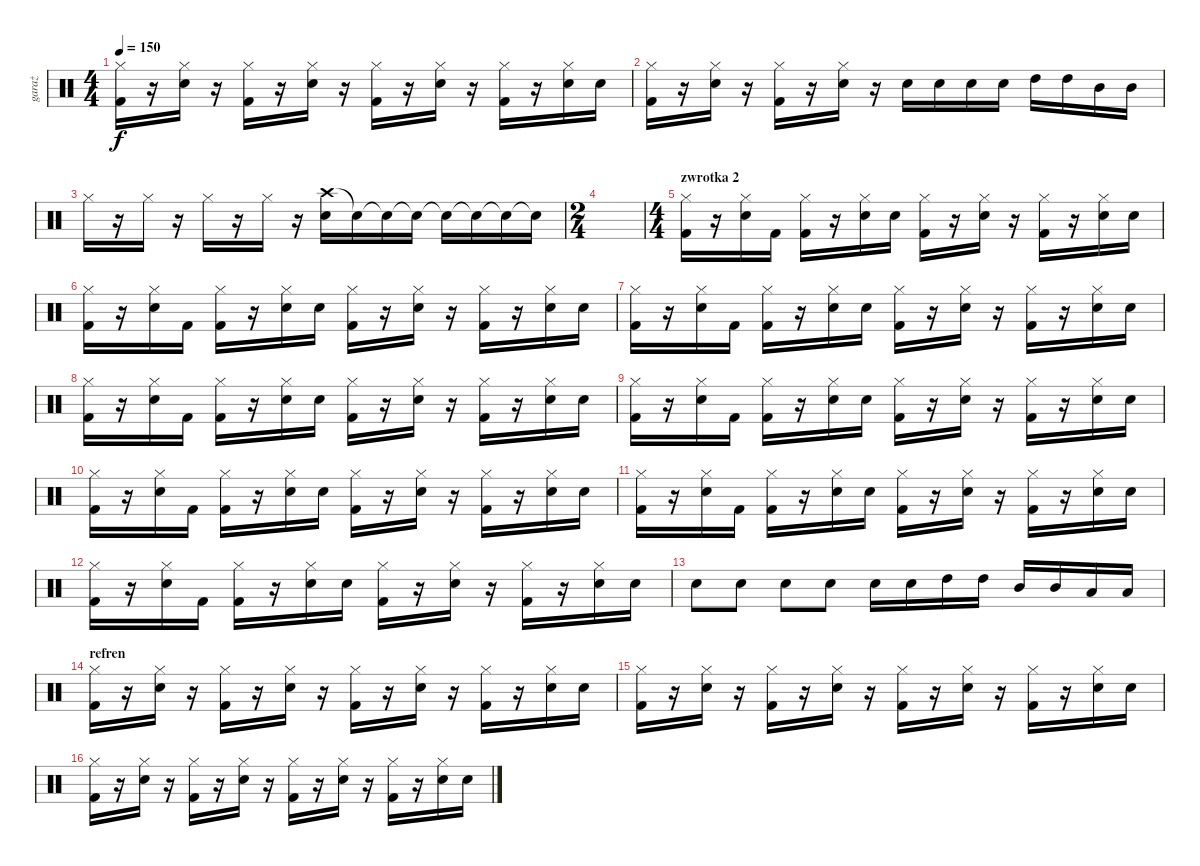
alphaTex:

\track ("garaż" "garaż") {instrument percussion}
\staff {score}
\articulation defaults
\ts (4 4)
\tempo 150
\clef neutral
\ks c
("Kick (hit) 2" "Hi-Hat (closed)").16{dy f} r.16 ("Snare (hit) 2" "Hi-Hat (closed)").16 r.16 ("Kick (hit) 2" "Hi-Hat (closed)").16 r.16 ("Snare (hit) 2" "Hi-Hat (closed)").16 r.16 ("Kick (hit) 2" "Hi-Hat (closed)").16 r.16 ("Snare (hit) 2" "Hi-Hat (closed)").16 r.16 ("Kick (hit) 2" "Hi-Hat (closed)").16 r.16 ("Snare (hit) 2" "Hi-Hat (closed)").16 "Snare (hit) 2".16 |
("Kick (hit) 2" "Hi-Hat (closed)").16 r.16 ("Snare (hit) 2" "Hi-Hat (closed)").16 r.16 ("Kick (hit) 2" "Hi-Hat (closed)").16 r.16 ("Snare (hit) 2" "Hi-Hat (closed)").16 r.16 "Snare (hit) 2".16 "Snare (hit) 2".16 "Snare (hit) 2".16 "Snare (hit) 2".16 "High Tom (hit)".16 "High Tom (hit)".16 "Mid Tom (hit)".16 "Mid Tom (hit)".16 |
"Hi-Hat (closed)".16 r.16 "Hi-Hat (closed)".16 r.16 "Hi-Hat (closed)".16 r.16 "Hi-Hat (closed)".16 r.16 ("Crash high (hit)" "Snare (hit) 2").16 "Snare (hit)"{t}.16 "Snare (hit)"{t}.16 "Snare (hit)"{t}.16 "Snare (hit)"{t}.16 "Snare (hit)"{t}.16 "Snare (hit)"{t}.16 "Snare (hit)"{t}.16 |
\ts (2 4)
|
\ts (4 4)
\section ("" "zwrotka 2")
("Kick (hit) 2" "Hi-Hat (closed)").16 r.16 ("Snare (hit) 2" "Hi-Hat (closed)").16 "Kick (hit) 2".16 ("Kick (hit) 2" "Hi-Hat (closed)").16 r.16 ("Snare (hit) 2" "Hi-Hat (closed)").16 "Snare (hit) 2".16 ("Kick (hit) 2" "Hi-Hat (closed)").16 r.16 ("Snare (hit) 2" "Hi-Hat (closed)").16 r.16 ("Kick (hit) 2" "Hi-Hat (closed)").16 r.16 ("Snare (hit) 2" "Hi-Hat (closed)").16 "Snare (hit) 2".16 |
("Kick (hit) 2" "Hi-Hat (closed)").16 r.16 ("Snare (hit) 2" "Hi-Hat (closed)").16 "Kick (hit) 2".16 ("Kick (hit) 2" "Hi-Hat (closed)").16 r.16 ("Snare (hit) 2" "Hi-Hat (closed)").16 "Snare (hit) 2".16 ("Kick (hit) 2" "Hi-Hat (closed)").16 r.16 ("Snare (hit) 2" "Hi-Hat (closed)").16 r.16 ("Kick (hit) 2" "Hi-Hat (closed)").16 r.16 ("Snare (hit) 2" "Hi-Hat (closed)").16 "Snare (hit) 2".16 |
("Kick (hit) 2" "Hi-Hat (closed)").16 r.16 ("Snare (hit) 2" "Hi-Hat (closed)").16 "Kick (hit) 2".16 ("Kick (hit) 2" "Hi-Hat (closed)").16 r.16 ("Snare (hit) 2" "Hi-Hat (closed)").16 "Snare (hit) 2".16 ("Kick (hit) 2" "Hi-Hat (closed)").16 r.16 ("Snare (hit) 2" "Hi-Hat (closed)").16 r.16 ("Kick (hit) 2" "Hi-Hat (closed)").16 r.16 ("Snare (hit) 2" "Hi-Hat (closed)").16 "Snare (hit) 2".16 |
("Kick (hit) 2" "Hi-Hat (closed)").16 r.16 ("Snare (hit) 2" "Hi-Hat (closed)").16 "Kick (hit) 2".16 ("Kick (hit) 2" "Hi-Hat (closed)").16 r.16 ("Snare (hit) 2" "Hi-Hat (closed)").16 "Snare (hit) 2".16 ("Kick (hit) 2" "Hi-Hat (closed)").16 r.16 ("Snare (hit) 2" "Hi-Hat (closed)").16 r.16 ("Kick (hit) 2" "Hi-Hat (closed)").16 r.16 ("Snare (hit) 2" "Hi-Hat (closed)").16 "Snare (hit) 2".16 |
("Kick (hit) 2" "Hi-Hat (closed)").16 r.16 ("Snare (hit) 2" "Hi-Hat (closed)").16 "Kick (hit) 2".16 ("Kick (hit) 2" "Hi-Hat (closed)").16 r.16 ("Snare (hit) 2" "Hi-Hat (closed)").16 "Snare (hit) 2".16 ("Kick (hit) 2" "Hi-Hat (closed)").16 r.16 ("Snare (hit) 2" "Hi-Hat (closed)").16 r.16 ("Kick (hit) 2" "Hi-Hat (closed)").16 r.16 ("Snare (hit) 2" "Hi-Hat (closed)").16 "Snare (hit) 2".16 |
("Kick (hit) 2" "Hi-Hat (closed)").16 r.16 ("Snare (hit) 2" "Hi-Hat (closed)").16 "Kick (hit) 2".16 ("Kick (hit) 2" "Hi-Hat (closed)").16 r.16 ("Snare (hit) 2" "Hi-Hat (closed)").16 "Snare (hit) 2".16 ("Kick (hit) 2" "Hi-Hat (closed)").16 r.16 ("Snare (hit) 2" "Hi-Hat (closed)").16 r.16 ("Kick (hit) 2" "Hi-Hat (closed)").16 r.16 ("Snare (hit) 2" "Hi-Hat (closed)").16 "Snare (hit) 2".16 |
("Kick (hit) 2" "Hi-Hat (closed)").16 r.16 ("Snare (hit) 2" "Hi-Hat (closed)").16 "Kick (hit) 2".16 ("Kick (hit) 2" "Hi-Hat (closed)").16 r.16 ("Snare (hit) 2" "Hi-Hat (closed)").16 "Snare (hit) 2".16 ("Kick (hit) 2" "Hi-Hat (closed)").16 r.16 ("Snare (hit) 2" "Hi-Hat (closed)").16 r.16 ("Kick (hit) 2" "Hi-Hat (closed)").16 r.16 ("Snare (hit) 2" "Hi-Hat (closed)").16 "Snare (hit) 2".16 |
("Kick (hit) 2" "Hi-Hat (closed)").16 r.16 ("Snare (hit) 2" "Hi-Hat (closed)").16 "Kick (hit) 2".16 ("Kick (hit) 2" "Hi-Hat (closed)").16 r.16 ("Snare (hit) 2" "Hi-Hat (closed)").16 "Snare (hit) 2".16 ("Kick (hit) 2" "Hi-Hat (closed)").16 r.16 ("Snare (hit) 2" "Hi-Hat (closed)").16 r.16 ("Kick (hit) 2" "Hi-Hat (closed)").16 r.16 ("Snare (hit) 2" "Hi-Hat (closed)").16 "Snare (hit) 2".16 |
"Snare (hit) 2".8 "Snare (hit) 2".8 "Snare (hit) 2".8 "Snare (hit) 2".8 "Snare (hit) 2".16 "Snare (hit) 2".16 "High Tom (hit)".16 "High Tom (hit)".16 "Mid Tom (hit)".16 "Mid Tom (hit)".16 "Low Tom (hit)".16 "Low Tom (hit)".16 |
\section ("" "refren")
("Kick (hit) 2" "Hi-Hat (closed)").16 r.16 ("Snare (hit) 2" "Hi-Hat (closed)").16 r.16 ("Kick (hit) 2" "Hi-Hat (closed)").16 r.16 ("Snare (hit) 2" "Hi-Hat (closed)").16 r.16 ("Kick (hit) 2" "Hi-Hat (closed)").16 r.16 ("Snare (hit) 2" "Hi-Hat (closed)").16 r.16 ("Kick (hit) 2" "Hi-Hat (closed)").16 r.16 ("Snare (hit) 2" "Hi-Hat (closed)").16 "Snare (hit) 2".16 |
("Kick (hit) 2" "Hi-Hat (closed)").16 r.16 ("Snare (hit) 2" "Hi-Hat (closed)").16 r.16 ("Kick (hit) 2" "Hi-Hat (closed)").16 r.16 ("Snare (hit) 2" "Hi-Hat (closed)").16 r.16 ("Kick (hit) 2" "Hi-Hat (closed)").16 r.16 ("Snare (hit) 2" "Hi-Hat (closed)").16 r.16 ("Kick (hit) 2" "Hi-Hat (closed)").16 r.16 ("Snare (hit) 2" "Hi-Hat (closed)").16 "Snare (hit) 2".16 |
("Kick (hit) 2" "Hi-Hat (closed)").16 r.16 ("Snare (hit) 2" "Hi-Hat (closed)").16 r.16 ("Kick (hit) 2" "Hi-Hat (closed)").16 r.16 ("Snare (hit) 2" "Hi-Hat (closed)").16 r.16 ("Kick (hit) 2" "Hi-Hat (closed)").16 r.16 ("Snare (hit) 2" "Hi-Hat (closed)").16 r.16 ("Kick (hit) 2" "Hi-Hat (closed)").16 r.16 ("Snare (hit) 2" "Hi-Hat (closed)").16 "Snare (hit) 2".16
